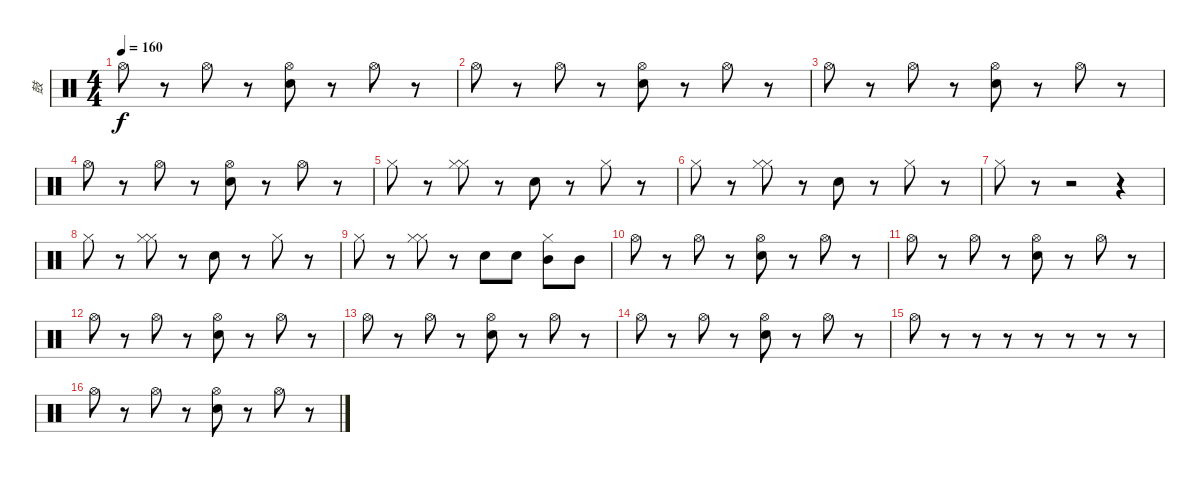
\track ("鼓" "鼓") {instrument percussion}
\staff {score}
\articulation defaults
\ts (4 4)
\tempo 160
\clef neutral
\ks c "Hi-Hat (open)".8{dy f}
r.8 "Hi-Hat (open)".8 r.8 ("Electric Snare (hit)" "Hi-Hat (open)").8 r.8 "Hi-Hat (open)".8 r.8 |
"Hi-Hat (open)".8 r.8 "Hi-Hat (open)".8 r.8 ("Electric Snare (hit)" "Hi-Hat (open)").8 r.8 "Hi-Hat (open)".8 r.8 |
"Hi-Hat (open)".8 r.8 "Hi-Hat (open)".8 r.8 ("Electric Snare (hit)" "Hi-Hat (open)").8 r.8 "Hi-Hat (open)".8 r.8 |
"Hi-Hat (open)".8 r.8 "Hi-Hat (open)".8 r.8 ("Electric Snare (hit)" "Hi-Hat (open)").8 r.8 "Hi-Hat (open)".8 r.8 |
"Hi-Hat (closed)".8 r.8 ("Hi-Hat (closed)" "Hi-Hat (closed)").8 r.8 "Snare (hit) 2".8 r.8 "Hi-Hat (closed)".8 r.8 |
"Hi-Hat (closed)".8 r.8 ("Hi-Hat (closed)" "Hi-Hat (closed)").8 r.8 "Snare (hit) 2".8 r.8 "Hi-Hat (closed)".8 r.8 |
"Hi-Hat (closed)".8 r.8 r.2 r.4 |
"Hi-Hat (closed)".8 r.8 ("Hi-Hat (closed)" "Hi-Hat (closed)").8 r.8 "Snare (hit) 2".8 r.8 "Hi-Hat (closed)".8 r.8 |
"Hi-Hat (closed)".8 r.8 ("Hi-Hat (closed)" "Hi-Hat (closed)").8 r.8 "Snare (hit) 2".8 "Snare (hit) 2".8 ("Hi-Hat (closed)" "Mid Tom (hit)").8 "Mid Tom (hit)".8 |
"Hi-Hat (open)".8 r.8 "Hi-Hat (open)".8 r.8 ("Electric Snare (hit)" "Hi-Hat (open)").8 r.8 "Hi-Hat (open)".8 r.8 |
"Hi-Hat (open)".8 r.8 "Hi-Hat (open)".8 r.8 ("Electric Snare (hit)" "Hi-Hat (open)").8 r.8 "Hi-Hat (open)".8 r.8 |
"Hi-Hat (open)".8 r.8 "Hi-Hat (open)".8 r.8 ("Electric Snare (hit)" "Hi-Hat (open)").8 r.8 "Hi-Hat (open)".8 r.8 |
"Hi-Hat (open)".8 r.8 "Hi-Hat (open)".8 r.8 ("Electric Snare (hit)" "Hi-Hat (open)").8 r.8 "Hi-Hat (open)".8 r.8 |
"Hi-Hat (open)".8 r.8 "Hi-Hat (open)".8 r.8 ("Electric Snare (hit)" "Hi-Hat (open)").8 r.8 "Hi-Hat (open)".8 r.8 |
"Hi-Hat (open)".8 r.8 r.8 r.8 r.8 r.8 r.8 r.8 |
"Hi-Hat (open)".8 r.8 "Hi-Hat (open)".8 r.8 ("Electric Snare (hit)" "Hi-Hat (open)").8 r.8 "Hi-Hat (open)".8 r.8
